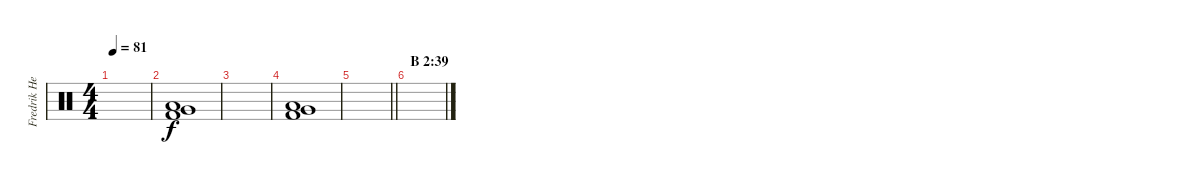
\track ("Fredrik Hellerström (Drums)" "Fredrik He") {instrument percussion}
\staff {score}
\articulation defaults
\ts (4 4)
\tempo 81
\clef neutral
\ks c
|
("Very Low Tom (hit)" "Low Floor Tom (hit)" "Kick (hit) 2").1 |
|
("Very Low Tom (hit)" "Low Floor Tom (hit)" "Kick (hit) 2").1 |
\barLineRight lightlight
|
\section ("" "B 2:39")
